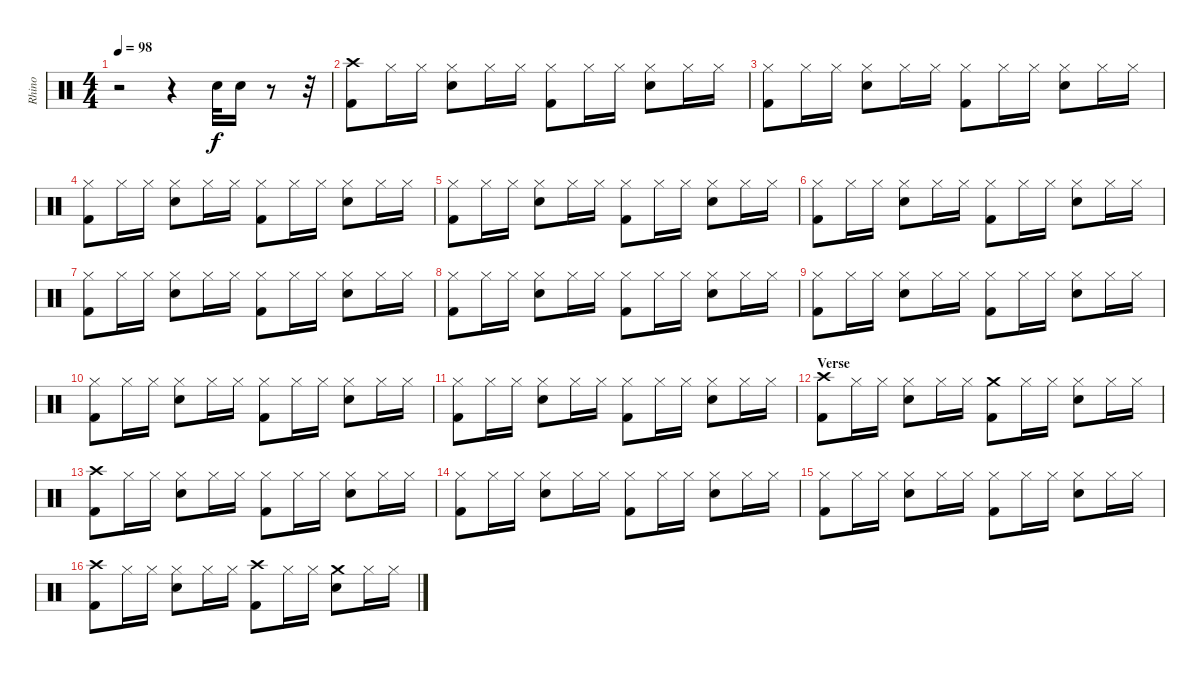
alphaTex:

\track ("Rhino" "Rhino") {instrument percussion}
\staff {score}
\articulation defaults
\ts (4 4)
\tempo 98
\clef neutral
\ks c
r.2{dy f} r.4 "Snare (hit) 2".32 "Snare (hit) 2".16 r.8 r.32 |
("Crash high (hit)" "Kick (hit) 2").8 "Hi-Hat (closed)".16 "Hi-Hat (closed)".16 ("Hi-Hat (closed)" "Snare (hit) 2").8 "Hi-Hat (closed)".16 "Hi-Hat (closed)".16 ("Hi-Hat (closed)" "Kick (hit) 2").8 "Hi-Hat (closed)".16 "Hi-Hat (closed)".16 ("Hi-Hat (closed)" "Snare (hit) 2").8 "Hi-Hat (closed)".16 "Hi-Hat (closed)".16 |
("Hi-Hat (closed)" "Kick (hit) 2").8 "Hi-Hat (closed)".16 "Hi-Hat (closed)".16 ("Hi-Hat (closed)" "Snare (hit) 2").8 "Hi-Hat (closed)".16 "Hi-Hat (closed)".16 ("Hi-Hat (closed)" "Kick (hit) 2").8 "Hi-Hat (closed)".16 "Hi-Hat (closed)".16 ("Hi-Hat (closed)" "Snare (hit) 2").8 "Hi-Hat (closed)".16 "Hi-Hat (closed)".16 |
("Hi-Hat (closed)" "Kick (hit) 2").8 "Hi-Hat (closed)".16 "Hi-Hat (closed)".16 ("Hi-Hat (closed)" "Snare (hit) 2").8 "Hi-Hat (closed)".16 "Hi-Hat (closed)".16 ("Hi-Hat (closed)" "Kick (hit) 2").8 "Hi-Hat (closed)".16 "Hi-Hat (closed)".16 ("Hi-Hat (closed)" "Snare (hit) 2").8 "Hi-Hat (closed)".16 "Hi-Hat (closed)".16 |
("Hi-Hat (closed)" "Kick (hit) 2").8 "Hi-Hat (closed)".16 "Hi-Hat (closed)".16 ("Hi-Hat (closed)" "Snare (hit) 2").8 "Hi-Hat (closed)".16 "Hi-Hat (closed)".16 ("Hi-Hat (closed)" "Kick (hit) 2").8 "Hi-Hat (closed)".16 "Hi-Hat (closed)".16 ("Hi-Hat (closed)" "Snare (hit) 2").8 "Hi-Hat (closed)".16 "Hi-Hat (closed)".16 |
("Hi-Hat (closed)" "Kick (hit) 2").8 "Hi-Hat (closed)".16 "Hi-Hat (closed)".16 ("Hi-Hat (closed)" "Snare (hit) 2").8 "Hi-Hat (closed)".16 "Hi-Hat (closed)".16 ("Hi-Hat (closed)" "Kick (hit) 2").8 "Hi-Hat (closed)".16 "Hi-Hat (closed)".16 ("Hi-Hat (closed)" "Snare (hit) 2").8 "Hi-Hat (closed)".16 "Hi-Hat (closed)".16 |
("Hi-Hat (closed)" "Kick (hit) 2").8 "Hi-Hat (closed)".16 "Hi-Hat (closed)".16 ("Hi-Hat (closed)" "Snare (hit) 2").8 "Hi-Hat (closed)".16 "Hi-Hat (closed)".16 ("Hi-Hat (closed)" "Kick (hit) 2").8 "Hi-Hat (closed)".16 "Hi-Hat (closed)".16 ("Hi-Hat (closed)" "Snare (hit) 2").8 "Hi-Hat (closed)".16 "Hi-Hat (closed)".16 |
("Hi-Hat (closed)" "Kick (hit) 2").8 "Hi-Hat (closed)".16 "Hi-Hat (closed)".16 ("Hi-Hat (closed)" "Snare (hit) 2").8 "Hi-Hat (closed)".16 "Hi-Hat (closed)".16 ("Hi-Hat (closed)" "Kick (hit) 2").8 "Hi-Hat (closed)".16 "Hi-Hat (closed)".16 ("Hi-Hat (closed)" "Snare (hit) 2").8 "Hi-Hat (closed)".16 "Hi-Hat (closed)".16 |
("Hi-Hat (closed)" "Kick (hit) 2").8 "Hi-Hat (closed)".16 "Hi-Hat (closed)".16 ("Hi-Hat (closed)" "Snare (hit) 2").8 "Hi-Hat (closed)".16 "Hi-Hat (closed)".16 ("Hi-Hat (closed)" "Kick (hit) 2").8 "Hi-Hat (closed)".16 "Hi-Hat (closed)".16 ("Hi-Hat (closed)" "Snare (hit) 2").8 "Hi-Hat (closed)".16 "Hi-Hat (closed)".16 |
("Hi-Hat (closed)" "Kick (hit) 2").8 "Hi-Hat (closed)".16 "Hi-Hat (closed)".16 ("Hi-Hat (closed)" "Snare (hit) 2").8 "Hi-Hat (closed)".16 "Hi-Hat (closed)".16 ("Hi-Hat (closed)" "Kick (hit) 2").8 "Hi-Hat (closed)".16 "Hi-Hat (closed)".16 ("Hi-Hat (closed)" "Snare (hit) 2").8 "Hi-Hat (closed)".16 "Hi-Hat (closed)".16 |
("Hi-Hat (closed)" "Kick (hit) 2").8 "Hi-Hat (closed)".16 "Hi-Hat (closed)".16 ("Hi-Hat (closed)" "Snare (hit) 2").8 "Hi-Hat (closed)".16 "Hi-Hat (closed)".16 ("Hi-Hat (closed)" "Kick (hit) 2").8 "Hi-Hat (closed)".16 "Hi-Hat (closed)".16 ("Hi-Hat (closed)" "Snare (hit) 2").8 "Hi-Hat (closed)".16 "Hi-Hat (closed)".16 |
\section ("" "Verse")
("Crash high (hit)" "Kick (hit) 2").8 "Hi-Hat (closed)".16 "Hi-Hat (closed)".16 ("Hi-Hat (closed)" "Snare (hit) 2").8 "Hi-Hat (closed)".16 "Hi-Hat (closed)".16 ("Crash medium (hit)" "Kick (hit) 2").8 "Hi-Hat (closed)".16 "Hi-Hat (closed)".16 ("Hi-Hat (closed)" "Snare (hit) 2").8 "Hi-Hat (closed)".16 "Hi-Hat (closed)".16 |
("Crash high (hit)" "Kick (hit) 2").8 "Hi-Hat (closed)".16 "Hi-Hat (closed)".16 ("Hi-Hat (closed)" "Snare (hit) 2").8 "Hi-Hat (closed)".16 "Hi-Hat (closed)".16 ("Hi-Hat (closed)" "Kick (hit) 2").8 "Hi-Hat (closed)".16 "Hi-Hat (closed)".16 ("Hi-Hat (closed)" "Snare (hit) 2").8 "Hi-Hat (closed)".16 "Hi-Hat (closed)".16 |
("Hi-Hat (closed)" "Kick (hit) 2").8 "Hi-Hat (closed)".16 "Hi-Hat (closed)".16 ("Hi-Hat (closed)" "Snare (hit) 2").8 "Hi-Hat (closed)".16 "Hi-Hat (closed)".16 ("Hi-Hat (closed)" "Kick (hit) 2").8 "Hi-Hat (closed)".16 "Hi-Hat (closed)".16 ("Hi-Hat (closed)" "Snare (hit) 2").8 "Hi-Hat (closed)".16 "Hi-Hat (closed)".16 |
("Hi-Hat (closed)" "Kick (hit) 2").8 "Hi-Hat (closed)".16 "Hi-Hat (closed)".16 ("Hi-Hat (closed)" "Snare (hit) 2").8 "Hi-Hat (closed)".16 "Hi-Hat (closed)".16 ("Hi-Hat (closed)" "Kick (hit) 2").8 "Hi-Hat (closed)".16 "Hi-Hat (closed)".16 ("Hi-Hat (closed)" "Snare (hit) 2").8 "Hi-Hat (closed)".16 "Hi-Hat (closed)".16 |
("Crash high (hit)" "Kick (hit) 2").8 "Hi-Hat (closed)".16 "Hi-Hat (closed)".16 ("Hi-Hat (closed)" "Snare (hit) 2").8 "Hi-Hat (closed)".16 "Hi-Hat (closed)".16 ("Crash high (hit)" "Kick (hit) 2").8 "Hi-Hat (closed)".16 "Hi-Hat (closed)".16 ("Crash medium (hit)" "Snare (hit) 2").8 "Hi-Hat (closed)".16 "Hi-Hat (closed)".16
